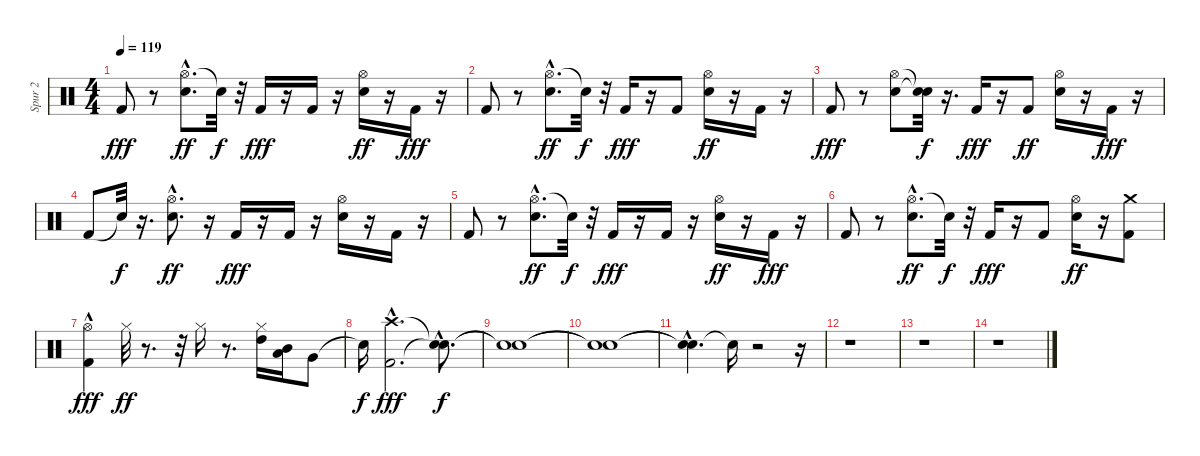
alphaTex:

\track ("Spur 2" "Spur 2") {instrument percussion}
\staff {score}
\articulation defaults
\ts (4 4)
\tempo 119
\clef neutral
\ks c "Kick (hit) 2".8{dy fff}
r.8 ("Hi-Hat (open)"{hac} "Electric Snare (hit)").8{d dy ff} "Snare (hit)"{t}.32{dy f} r.32 "Kick (hit) 2".16{dy fff} r.16 "Kick (hit) 2".16 r.16 ("Hi-Hat (open)" "Electric Snare (hit)").16{dy ff} r.16 "Kick (hit) 2".16{dy fff} r.16 |
"Kick (hit) 2".8 r.8 ("Hi-Hat (open)"{hac} "Electric Snare (hit)").8{d dy ff} "Snare (hit)"{t}.32{dy f} r.32 "Kick (hit) 2".16{dy fff} r.16 "Kick (hit) 2".8 ("Hi-Hat (open)" "Electric Snare (hit)").16{dy ff} r.16 "Kick (hit) 2".16 r.16 |
"Kick (hit) 2".8{dy fff} r.8 ("Hi-Hat (open)" "Electric Snare (hit)").8 ("Snare (hit)"{t} "Snare (hit)"{t}).32{dy f} r.16{d} "Kick (hit) 2".16{dy fff} r.16 "Kick (hit) 2".8{dy ff} ("Hi-Hat (open)" "Electric Snare (hit)").16 r.16 "Kick (hit) 2".16{dy fff} r.16 |
"Kick (hit) 2".8 "Snare (hit)"{t}.32{dy f} r.16{d} ("Hi-Hat (open)"{hac} "Electric Snare (hit)").8{d dy ff} r.16 "Kick (hit) 2".16{dy fff} r.16 "Kick (hit) 2".16 r.16 ("Hi-Hat (open)" "Electric Snare (hit)").16 r.16 "Kick (hit) 2".16 r.16 |
"Kick (hit) 2".8 r.8 ("Hi-Hat (open)"{hac} "Electric Snare (hit)").8{d dy ff} "Snare (hit)"{t}.32{dy f} r.32 "Kick (hit) 2".16{dy fff} r.16 "Kick (hit) 2".16 r.16 ("Hi-Hat (open)" "Electric Snare (hit)").16{dy ff} r.16 "Kick (hit) 2".16{dy fff} r.16 |
"Kick (hit) 2".8 r.8 ("Hi-Hat (open)"{hac} "Electric Snare (hit)").8{d dy ff} "Snare (hit)"{t}.32{dy f} r.32 "Kick (hit) 2".16{dy fff} r.16 "Kick (hit) 2".8 ("Hi-Hat (open)" "Electric Snare (hit)").16{dy ff} r.16 ("Crash medium (hit)" "Kick (hit) 2").8 |
("Hi-Hat (open)"{hac} "Kick (hit) 2"{hac}).4{dy fff} "Hi-Hat (closed)".32{dy ff} r.8{d} r.32 "Hi-Hat (closed)".16 r.8{d} ("High Tom (hit)" "Hi-Hat (closed)").16 ("Mid Tom (hit)" "Low Tom (hit)").16 "Very Low Tom (hit)".8 |
"Snare (hit)"{t}.16{dy f} ("Kick (hit) 2"{hac} "Crash high (hit)"{hac}).2{d dy fff} ("Snare (hit)"{hac t} "Snare (hit)"{hac t}).8{d dy f} |
("Snare (hit)"{t} "Snare (hit)"{t}).1 |
("Snare (hit)"{t} "Snare (hit)"{t}).1 |
("Snare (hit)"{hac t} "Snare (hit)"{t}).4{d} "Snare (hit)"{t}.16 r.2 r.16 |
r.1 |
r.1 |
r.1
